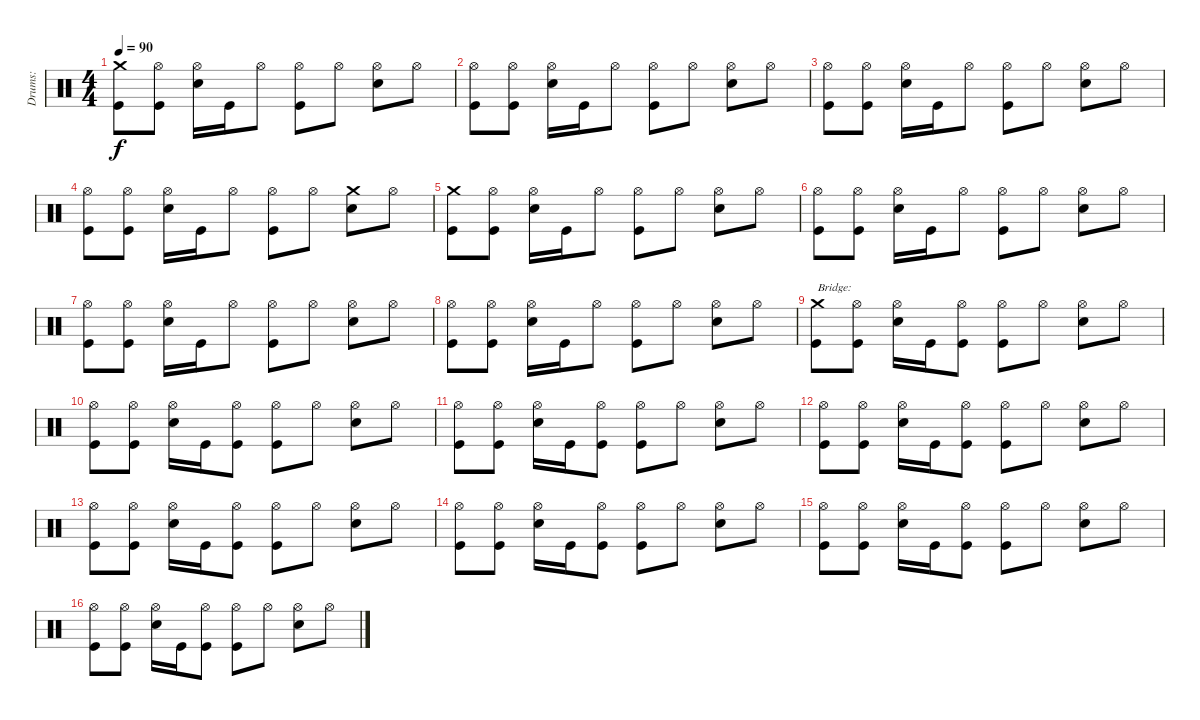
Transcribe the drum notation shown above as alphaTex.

\track ("Drums:" "Drums:") {instrument percussion}
\staff {score}
\articulation defaults
\ts (4 4)
\tempo 90
\clef neutral
\ks c
("Crash medium (hit)" "Kick (hit)").8{dy f} ("Hi-Hat (open)" "Kick (hit)").8 ("Hi-Hat (open)" "Snare (hit) 2").16 "Kick (hit)".16 "Hi-Hat (open)".8 ("Hi-Hat (open)" "Kick (hit)").8 "Hi-Hat (open)".8 ("Hi-Hat (open)" "Snare (hit) 2").8 "Hi-Hat (open)".8 |
("Hi-Hat (open)" "Kick (hit)").8 ("Hi-Hat (open)" "Kick (hit)").8 ("Hi-Hat (open)" "Snare (hit) 2").16 "Kick (hit)".16 "Hi-Hat (open)".8 ("Hi-Hat (open)" "Kick (hit)").8 "Hi-Hat (open)".8 ("Hi-Hat (open)" "Snare (hit) 2").8 "Hi-Hat (open)".8 |
("Hi-Hat (open)" "Kick (hit)").8 ("Hi-Hat (open)" "Kick (hit)").8 ("Hi-Hat (open)" "Snare (hit) 2").16 "Kick (hit)".16 "Hi-Hat (open)".8 ("Hi-Hat (open)" "Kick (hit)").8 "Hi-Hat (open)".8 ("Hi-Hat (open)" "Snare (hit) 2").8 "Hi-Hat (open)".8 |
("Hi-Hat (open)" "Kick (hit)").8 ("Hi-Hat (open)" "Kick (hit)").8 ("Hi-Hat (open)" "Snare (hit) 2").16 "Kick (hit)".16 "Hi-Hat (open)".8 ("Hi-Hat (open)" "Kick (hit)").8 "Hi-Hat (open)".8 ("Crash medium (hit)" "Snare (hit) 2").8 "Hi-Hat (open)".8 |
("Crash medium (hit)" "Kick (hit)").8 ("Hi-Hat (open)" "Kick (hit)").8 ("Hi-Hat (open)" "Snare (hit) 2").16 "Kick (hit)".16 "Hi-Hat (open)".8 ("Hi-Hat (open)" "Kick (hit)").8 "Hi-Hat (open)".8 ("Hi-Hat (open)" "Snare (hit) 2").8 "Hi-Hat (open)".8 |
("Hi-Hat (open)" "Kick (hit)").8 ("Hi-Hat (open)" "Kick (hit)").8 ("Hi-Hat (open)" "Snare (hit) 2").16 "Kick (hit)".16 "Hi-Hat (open)".8 ("Hi-Hat (open)" "Kick (hit)").8 "Hi-Hat (open)".8 ("Hi-Hat (open)" "Snare (hit) 2").8 "Hi-Hat (open)".8 |
("Hi-Hat (open)" "Kick (hit)").8 ("Hi-Hat (open)" "Kick (hit)").8 ("Hi-Hat (open)" "Snare (hit) 2").16 "Kick (hit)".16 "Hi-Hat (open)".8 ("Hi-Hat (open)" "Kick (hit)").8 "Hi-Hat (open)".8 ("Hi-Hat (open)" "Snare (hit) 2").8 "Hi-Hat (open)".8 |
("Hi-Hat (open)" "Kick (hit)").8 ("Hi-Hat (open)" "Kick (hit)").8 ("Hi-Hat (open)" "Snare (hit) 2").16 "Kick (hit)".16 "Hi-Hat (open)".8 ("Hi-Hat (open)" "Kick (hit)").8 "Hi-Hat (open)".8 ("Hi-Hat (open)" "Snare (hit) 2").8 "Hi-Hat (open)".8 |
("Crash medium (hit)" "Kick (hit)").8{txt "Bridge:"} ("Hi-Hat (open)" "Kick (hit)").8 ("Hi-Hat (open)" "Snare (hit) 2").16 "Kick (hit)".16 ("Hi-Hat (open)" "Kick (hit)").8 ("Hi-Hat (open)" "Kick (hit)").8 "Hi-Hat (open)".8 ("Hi-Hat (open)" "Snare (hit) 2").8 "Hi-Hat (open)".8 |
("Hi-Hat (open)" "Kick (hit)").8 ("Hi-Hat (open)" "Kick (hit)").8 ("Hi-Hat (open)" "Snare (hit) 2").16 "Kick (hit)".16 ("Hi-Hat (open)" "Kick (hit)").8 ("Hi-Hat (open)" "Kick (hit)").8 "Hi-Hat (open)".8 ("Hi-Hat (open)" "Snare (hit) 2").8 "Hi-Hat (open)".8 |
("Hi-Hat (open)" "Kick (hit)").8 ("Hi-Hat (open)" "Kick (hit)").8 ("Hi-Hat (open)" "Snare (hit) 2").16 "Kick (hit)".16 ("Hi-Hat (open)" "Kick (hit)").8 ("Hi-Hat (open)" "Kick (hit)").8 "Hi-Hat (open)".8 ("Hi-Hat (open)" "Snare (hit) 2").8 "Hi-Hat (open)".8 |
("Hi-Hat (open)" "Kick (hit)").8 ("Hi-Hat (open)" "Kick (hit)").8 ("Hi-Hat (open)" "Snare (hit) 2").16 "Kick (hit)".16 ("Hi-Hat (open)" "Kick (hit)").8 ("Hi-Hat (open)" "Kick (hit)").8 "Hi-Hat (open)".8 ("Hi-Hat (open)" "Snare (hit) 2").8 "Hi-Hat (open)".8 |
("Hi-Hat (open)" "Kick (hit)").8 ("Hi-Hat (open)" "Kick (hit)").8 ("Hi-Hat (open)" "Snare (hit) 2").16 "Kick (hit)".16 ("Hi-Hat (open)" "Kick (hit)").8 ("Hi-Hat (open)" "Kick (hit)").8 "Hi-Hat (open)".8 ("Hi-Hat (open)" "Snare (hit) 2").8 "Hi-Hat (open)".8 |
("Hi-Hat (open)" "Kick (hit)").8 ("Hi-Hat (open)" "Kick (hit)").8 ("Hi-Hat (open)" "Snare (hit) 2").16 "Kick (hit)".16 ("Hi-Hat (open)" "Kick (hit)").8 ("Hi-Hat (open)" "Kick (hit)").8 "Hi-Hat (open)".8 ("Hi-Hat (open)" "Snare (hit) 2").8 "Hi-Hat (open)".8 |
("Hi-Hat (open)" "Kick (hit)").8 ("Hi-Hat (open)" "Kick (hit)").8 ("Hi-Hat (open)" "Snare (hit) 2").16 "Kick (hit)".16 ("Hi-Hat (open)" "Kick (hit)").8 ("Hi-Hat (open)" "Kick (hit)").8 "Hi-Hat (open)".8 ("Hi-Hat (open)" "Snare (hit) 2").8 "Hi-Hat (open)".8 |
("Hi-Hat (open)" "Kick (hit)").8 ("Hi-Hat (open)" "Kick (hit)").8 ("Hi-Hat (open)" "Snare (hit) 2").16 "Kick (hit)".16 ("Hi-Hat (open)" "Kick (hit)").8 ("Hi-Hat (open)" "Kick (hit)").8 "Hi-Hat (open)".8 ("Hi-Hat (open)" "Snare (hit) 2").8 "Hi-Hat (open)".8
